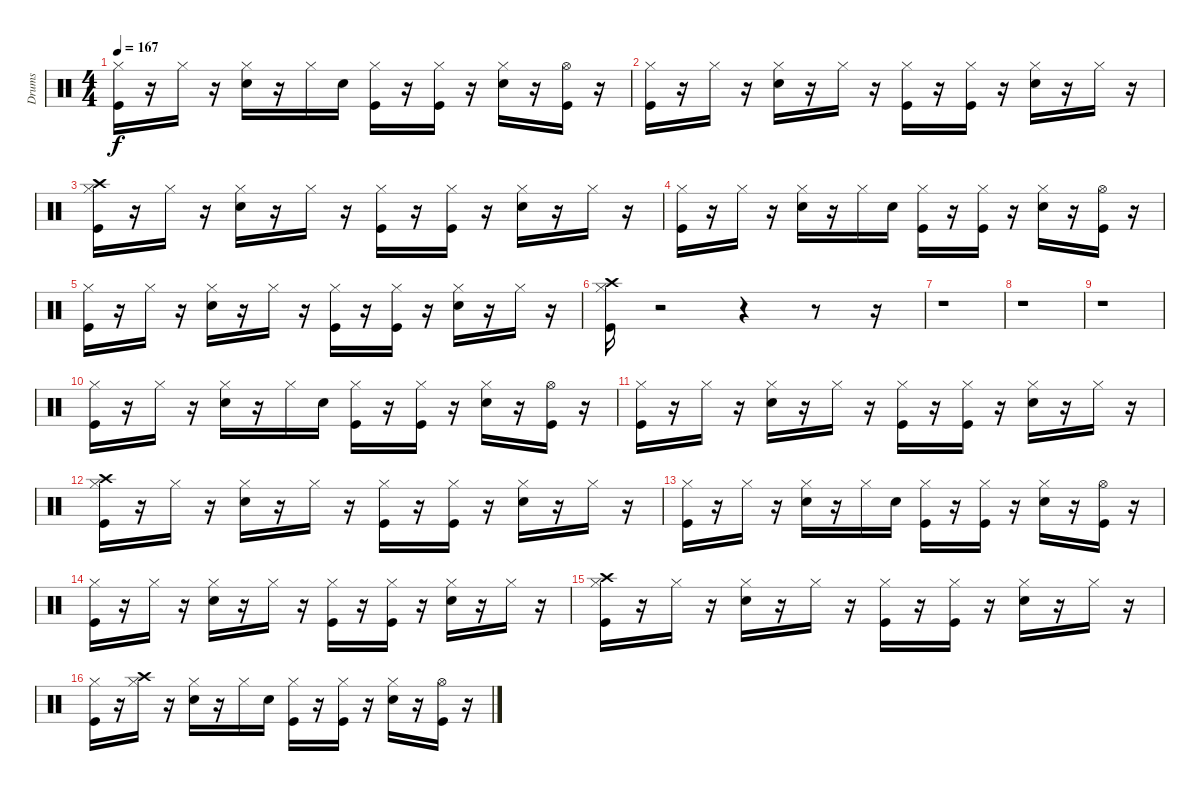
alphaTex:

\track ("Drums" "Drums") {instrument percussion}
\staff {score}
\articulation defaults
\ts (4 4)
\tempo 167
\clef neutral
\ks c
("Kick (hit)" "Hi-Hat (closed)").16{dy f} r.16 "Hi-Hat (closed)".16 r.16 ("Snare (hit) 2" "Hi-Hat (closed)").16 r.16 "Hi-Hat (closed)".16 "Snare (hit) 2".16 ("Kick (hit)" "Hi-Hat (closed)").16 r.16 ("Kick (hit)" "Hi-Hat (closed)").16 r.16 ("Snare (hit) 2" "Hi-Hat (closed)").16 r.16 ("Kick (hit)" "Hi-Hat (open)").16 r.16 |
("Kick (hit)" "Hi-Hat (closed)").16 r.16 "Hi-Hat (closed)".16 r.16 ("Snare (hit) 2" "Hi-Hat (closed)").16 r.16 "Hi-Hat (closed)".16 r.16 ("Kick (hit)" "Hi-Hat (closed)").16 r.16 ("Kick (hit)" "Hi-Hat (closed)").16 r.16 ("Snare (hit) 2" "Hi-Hat (closed)").16 r.16 "Hi-Hat (closed)".16 r.16 |
("Kick (hit)" "Hi-Hat (closed)" "Crash high (hit)").16 r.16 "Hi-Hat (closed)".16 r.16 ("Snare (hit) 2" "Hi-Hat (closed)").16 r.16 "Hi-Hat (closed)".16 r.16 ("Kick (hit)" "Hi-Hat (closed)").16 r.16 ("Kick (hit)" "Hi-Hat (closed)").16 r.16 ("Snare (hit) 2" "Hi-Hat (closed)").16 r.16 "Hi-Hat (closed)".16 r.16 |
("Kick (hit)" "Hi-Hat (closed)").16 r.16 "Hi-Hat (closed)".16 r.16 ("Snare (hit) 2" "Hi-Hat (closed)").16 r.16 "Hi-Hat (closed)".16 "Snare (hit) 2".16 ("Kick (hit)" "Hi-Hat (closed)").16 r.16 ("Kick (hit)" "Hi-Hat (closed)").16 r.16 ("Snare (hit) 2" "Hi-Hat (closed)").16 r.16 ("Kick (hit)" "Hi-Hat (open)").16 r.16 |
("Kick (hit)" "Hi-Hat (closed)").16 r.16 "Hi-Hat (closed)".16 r.16 ("Snare (hit) 2" "Hi-Hat (closed)").16 r.16 "Hi-Hat (closed)".16 r.16 ("Kick (hit)" "Hi-Hat (closed)").16 r.16 ("Kick (hit)" "Hi-Hat (closed)").16 r.16 ("Snare (hit) 2" "Hi-Hat (closed)").16 r.16 "Hi-Hat (closed)".16 r.16 |
("Kick (hit)" "Hi-Hat (closed)" "Crash high (hit)").16 r.2 r.4 r.8 r.16 |
r.1 |
r.1 |
r.1 |
("Kick (hit)" "Hi-Hat (closed)").16 r.16 "Hi-Hat (closed)".16 r.16 ("Snare (hit) 2" "Hi-Hat (closed)").16 r.16 "Hi-Hat (closed)".16 "Snare (hit) 2".16 ("Kick (hit)" "Hi-Hat (closed)").16 r.16 ("Kick (hit)" "Hi-Hat (closed)").16 r.16 ("Snare (hit) 2" "Hi-Hat (closed)").16 r.16 ("Kick (hit)" "Hi-Hat (open)").16 r.16 |
("Kick (hit)" "Hi-Hat (closed)").16 r.16 "Hi-Hat (closed)".16 r.16 ("Snare (hit) 2" "Hi-Hat (closed)").16 r.16 "Hi-Hat (closed)".16 r.16 ("Kick (hit)" "Hi-Hat (closed)").16 r.16 ("Kick (hit)" "Hi-Hat (closed)").16 r.16 ("Snare (hit) 2" "Hi-Hat (closed)").16 r.16 "Hi-Hat (closed)".16 r.16 |
("Kick (hit)" "Hi-Hat (closed)" "Crash high (hit)").16 r.16 "Hi-Hat (closed)".16 r.16 ("Snare (hit) 2" "Hi-Hat (closed)").16 r.16 "Hi-Hat (closed)".16 r.16 ("Kick (hit)" "Hi-Hat (closed)").16 r.16 ("Kick (hit)" "Hi-Hat (closed)").16 r.16 ("Snare (hit) 2" "Hi-Hat (closed)").16 r.16 "Hi-Hat (closed)".16 r.16 |
("Kick (hit)" "Hi-Hat (closed)").16 r.16 "Hi-Hat (closed)".16 r.16 ("Snare (hit) 2" "Hi-Hat (closed)").16 r.16 "Hi-Hat (closed)".16 "Snare (hit) 2".16 ("Kick (hit)" "Hi-Hat (closed)").16 r.16 ("Kick (hit)" "Hi-Hat (closed)").16 r.16 ("Snare (hit) 2" "Hi-Hat (closed)").16 r.16 ("Kick (hit)" "Hi-Hat (open)").16 r.16 |
("Kick (hit)" "Hi-Hat (closed)").16 r.16 "Hi-Hat (closed)".16 r.16 ("Snare (hit) 2" "Hi-Hat (closed)").16 r.16 "Hi-Hat (closed)".16 r.16 ("Kick (hit)" "Hi-Hat (closed)").16 r.16 ("Kick (hit)" "Hi-Hat (closed)").16 r.16 ("Snare (hit) 2" "Hi-Hat (closed)").16 r.16 "Hi-Hat (closed)".16 r.16 |
("Kick (hit)" "Hi-Hat (closed)" "Crash high (hit)").16 r.16 "Hi-Hat (closed)".16 r.16 ("Snare (hit) 2" "Hi-Hat (closed)").16 r.16 "Hi-Hat (closed)".16 r.16 ("Kick (hit)" "Hi-Hat (closed)").16 r.16 ("Kick (hit)" "Hi-Hat (closed)").16 r.16 ("Snare (hit) 2" "Hi-Hat (closed)").16 r.16 "Hi-Hat (closed)".16 r.16 |
("Kick (hit)" "Hi-Hat (closed)").16 r.16 ("Crash high (hit)" "Hi-Hat (closed)").16 r.16 ("Snare (hit) 2" "Hi-Hat (closed)").16 r.16 "Hi-Hat (closed)".16 "Snare (hit) 2".16 ("Kick (hit)" "Hi-Hat (closed)").16 r.16 ("Kick (hit)" "Hi-Hat (closed)").16 r.16 ("Snare (hit) 2" "Hi-Hat (closed)").16 r.16 ("Kick (hit)" "Hi-Hat (open)").16 r.16
